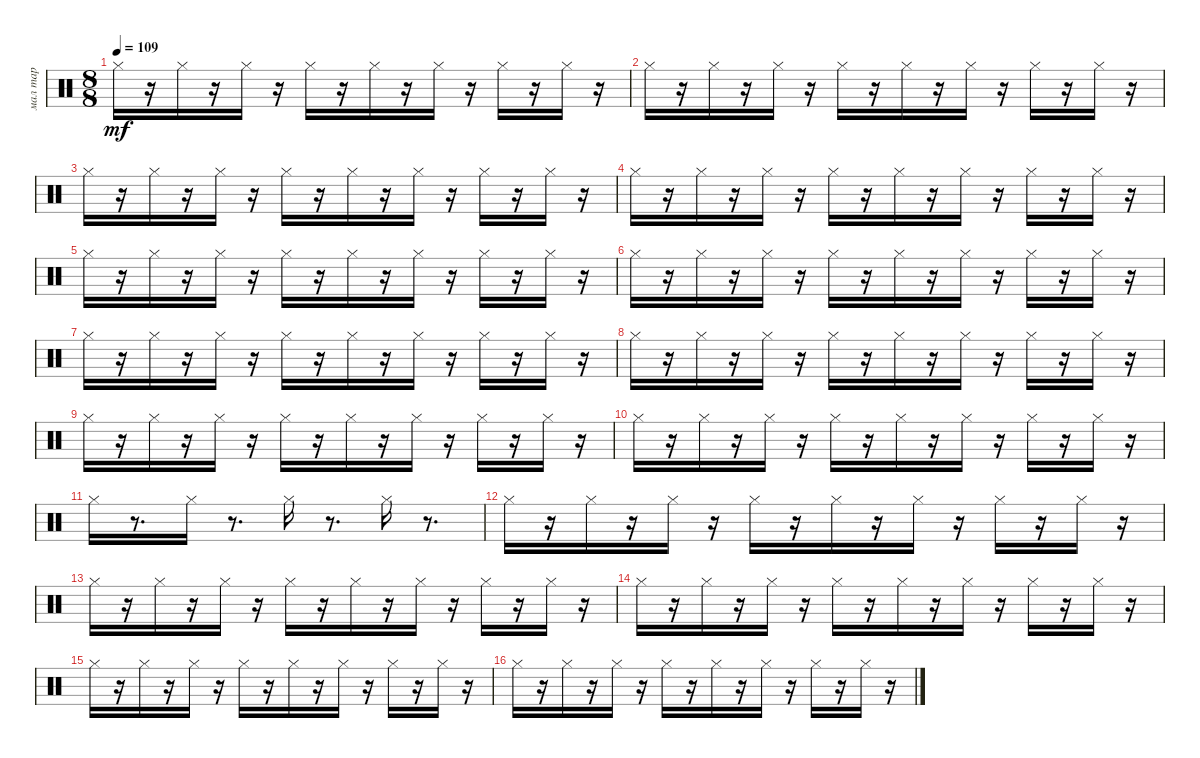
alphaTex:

\track ("мал тар" "мал тар") {instrument percussion}
\staff {score}
\articulation defaults
\ts (8 8)
\tempo 109
\clef neutral
\ks c "Hi-Hat (closed)".16{dy mf}
r.16 "Hi-Hat (closed)".16 r.16 "Hi-Hat (closed)".16 r.16 "Hi-Hat (closed)".16 r.16 "Hi-Hat (closed)".16 r.16 "Hi-Hat (closed)".16 r.16 "Hi-Hat (closed)".16 r.16 "Hi-Hat (closed)".16 r.16 |
"Hi-Hat (closed)".16 r.16 "Hi-Hat (closed)".16 r.16 "Hi-Hat (closed)".16 r.16 "Hi-Hat (closed)".16 r.16 "Hi-Hat (closed)".16 r.16 "Hi-Hat (closed)".16 r.16 "Hi-Hat (closed)".16 r.16 "Hi-Hat (closed)".16 r.16 |
"Hi-Hat (closed)".16 r.16 "Hi-Hat (closed)".16 r.16 "Hi-Hat (closed)".16 r.16 "Hi-Hat (closed)".16 r.16 "Hi-Hat (closed)".16 r.16 "Hi-Hat (closed)".16 r.16 "Hi-Hat (closed)".16 r.16 "Hi-Hat (closed)".16 r.16 |
"Hi-Hat (closed)".16 r.16 "Hi-Hat (closed)".16 r.16 "Hi-Hat (closed)".16 r.16 "Hi-Hat (closed)".16 r.16 "Hi-Hat (closed)".16 r.16 "Hi-Hat (closed)".16 r.16 "Hi-Hat (closed)".16 r.16 "Hi-Hat (closed)".16 r.16 |
"Hi-Hat (closed)".16 r.16 "Hi-Hat (closed)".16 r.16 "Hi-Hat (closed)".16 r.16 "Hi-Hat (closed)".16 r.16 "Hi-Hat (closed)".16 r.16 "Hi-Hat (closed)".16 r.16 "Hi-Hat (closed)".16 r.16 "Hi-Hat (closed)".16 r.16 |
"Hi-Hat (closed)".16 r.16 "Hi-Hat (closed)".16 r.16 "Hi-Hat (closed)".16 r.16 "Hi-Hat (closed)".16 r.16 "Hi-Hat (closed)".16 r.16 "Hi-Hat (closed)".16 r.16 "Hi-Hat (closed)".16 r.16 "Hi-Hat (closed)".16 r.16 |
"Hi-Hat (closed)".16 r.16 "Hi-Hat (closed)".16 r.16 "Hi-Hat (closed)".16 r.16 "Hi-Hat (closed)".16 r.16 "Hi-Hat (closed)".16 r.16 "Hi-Hat (closed)".16 r.16 "Hi-Hat (closed)".16 r.16 "Hi-Hat (closed)".16 r.16 |
"Hi-Hat (closed)".16 r.16 "Hi-Hat (closed)".16 r.16 "Hi-Hat (closed)".16 r.16 "Hi-Hat (closed)".16 r.16 "Hi-Hat (closed)".16 r.16 "Hi-Hat (closed)".16 r.16 "Hi-Hat (closed)".16 r.16 "Hi-Hat (closed)".16 r.16 |
"Hi-Hat (closed)".16 r.16 "Hi-Hat (closed)".16 r.16 "Hi-Hat (closed)".16 r.16 "Hi-Hat (closed)".16 r.16 "Hi-Hat (closed)".16 r.16 "Hi-Hat (closed)".16 r.16 "Hi-Hat (closed)".16 r.16 "Hi-Hat (closed)".16 r.16 |
"Hi-Hat (closed)".16 r.16 "Hi-Hat (closed)".16 r.16 "Hi-Hat (closed)".16 r.16 "Hi-Hat (closed)".16 r.16 "Hi-Hat (closed)".16 r.16 "Hi-Hat (closed)".16 r.16 "Hi-Hat (closed)".16 r.16 "Hi-Hat (closed)".16 r.16 |
"Hi-Hat (closed)".16 r.8{d} "Hi-Hat (closed)".16 r.8{d} "Hi-Hat (closed)".16 r.8{d} "Hi-Hat (closed)".16 r.8{d} |
"Hi-Hat (closed)".16 r.16 "Hi-Hat (closed)".16 r.16 "Hi-Hat (closed)".16 r.16 "Hi-Hat (closed)".16 r.16 "Hi-Hat (closed)".16 r.16 "Hi-Hat (closed)".16 r.16 "Hi-Hat (closed)".16 r.16 "Hi-Hat (closed)".16 r.16 |
"Hi-Hat (closed)".16 r.16 "Hi-Hat (closed)".16 r.16 "Hi-Hat (closed)".16 r.16 "Hi-Hat (closed)".16 r.16 "Hi-Hat (closed)".16 r.16 "Hi-Hat (closed)".16 r.16 "Hi-Hat (closed)".16 r.16 "Hi-Hat (closed)".16 r.16 |
"Hi-Hat (closed)".16 r.16 "Hi-Hat (closed)".16 r.16 "Hi-Hat (closed)".16 r.16 "Hi-Hat (closed)".16 r.16 "Hi-Hat (closed)".16 r.16 "Hi-Hat (closed)".16 r.16 "Hi-Hat (closed)".16 r.16 "Hi-Hat (closed)".16 r.16 |
"Hi-Hat (closed)".16 r.16 "Hi-Hat (closed)".16 r.16 "Hi-Hat (closed)".16 r.16 "Hi-Hat (closed)".16 r.16 "Hi-Hat (closed)".16 r.16 "Hi-Hat (closed)".16 r.16 "Hi-Hat (closed)".16 r.16 "Hi-Hat (closed)".16 r.16 |
"Hi-Hat (closed)".16 r.16 "Hi-Hat (closed)".16 r.16 "Hi-Hat (closed)".16 r.16 "Hi-Hat (closed)".16 r.16 "Hi-Hat (closed)".16 r.16 "Hi-Hat (closed)".16 r.16 "Hi-Hat (closed)".16 r.16 "Hi-Hat (closed)".16 r.16
